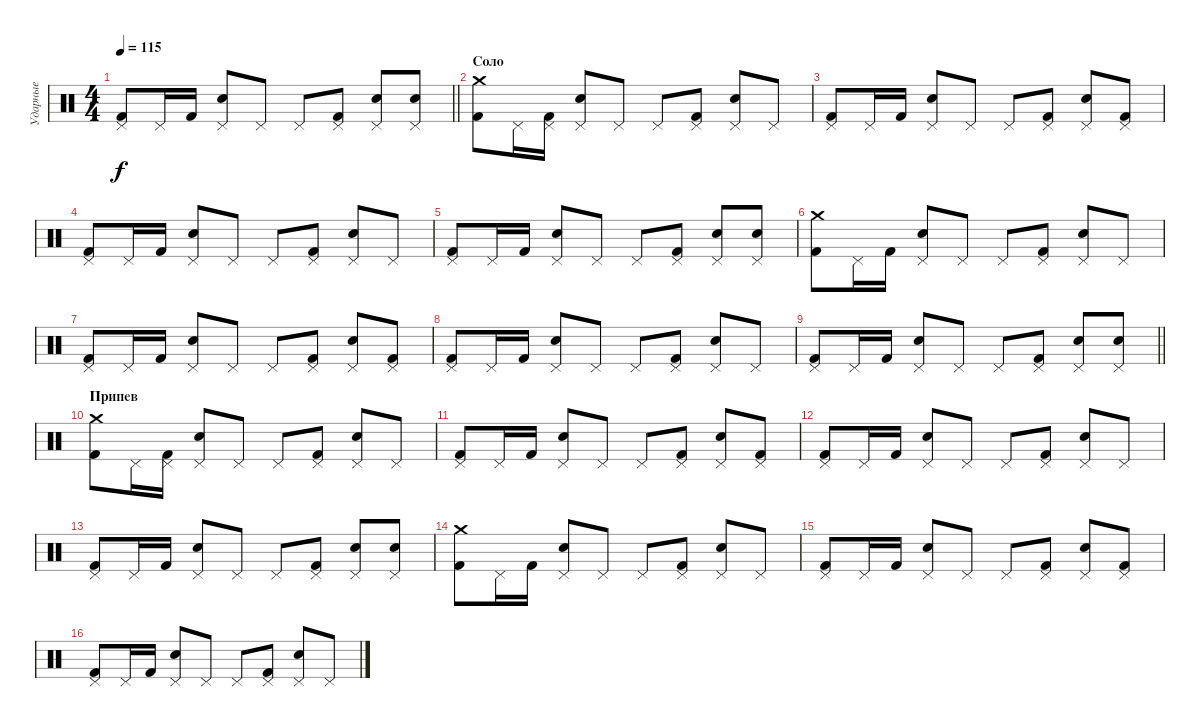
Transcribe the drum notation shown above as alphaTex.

\track ("Ударные" "Ударные") {instrument percussion}
\staff {score}
\articulation defaults
\ts (4 4)
\tempo 115
\clef neutral
\barLineRight lightlight
\ks c
("Pedal Hi-Hat (hit)" "Kick (hit) 2").8{dy f} "Pedal Hi-Hat (hit)".16 "Kick (hit) 2".16 ("Pedal Hi-Hat (hit)" "Electric Snare (hit)").8 "Pedal Hi-Hat (hit)".8 "Pedal Hi-Hat (hit)".8 ("Pedal Hi-Hat (hit)" "Kick (hit) 2").8 ("Pedal Hi-Hat (hit)" "Electric Snare (hit)").8 ("Pedal Hi-Hat (hit)" "Electric Snare (hit)").8 |
\section ("" "Соло")
("Crash medium (hit)" "Kick (hit) 2").8 "Pedal Hi-Hat (hit)".16 ("Pedal Hi-Hat (hit)" "Kick (hit) 2").16 ("Pedal Hi-Hat (hit)" "Electric Snare (hit)").8 "Pedal Hi-Hat (hit)".8 "Pedal Hi-Hat (hit)".8 ("Pedal Hi-Hat (hit)" "Kick (hit) 2").8 ("Pedal Hi-Hat (hit)" "Electric Snare (hit)").8 "Pedal Hi-Hat (hit)".8 |
("Pedal Hi-Hat (hit)" "Kick (hit) 2").8 "Pedal Hi-Hat (hit)".16 "Kick (hit) 2".16 ("Pedal Hi-Hat (hit)" "Electric Snare (hit)").8 "Pedal Hi-Hat (hit)".8 "Pedal Hi-Hat (hit)".8 ("Pedal Hi-Hat (hit)" "Kick (hit) 2").8 ("Pedal Hi-Hat (hit)" "Electric Snare (hit)").8 ("Pedal Hi-Hat (hit)" "Kick (hit) 2").8 |
("Pedal Hi-Hat (hit)" "Kick (hit) 2").8 "Pedal Hi-Hat (hit)".16 "Kick (hit) 2".16 ("Pedal Hi-Hat (hit)" "Electric Snare (hit)").8 "Pedal Hi-Hat (hit)".8 "Pedal Hi-Hat (hit)".8 ("Pedal Hi-Hat (hit)" "Kick (hit) 2").8 ("Pedal Hi-Hat (hit)" "Electric Snare (hit)").8 "Pedal Hi-Hat (hit)".8 |
("Pedal Hi-Hat (hit)" "Kick (hit) 2").8 "Pedal Hi-Hat (hit)".16 "Kick (hit) 2".16 ("Pedal Hi-Hat (hit)" "Electric Snare (hit)").8 "Pedal Hi-Hat (hit)".8 "Pedal Hi-Hat (hit)".8 ("Pedal Hi-Hat (hit)" "Kick (hit) 2").8 ("Pedal Hi-Hat (hit)" "Electric Snare (hit)").8 ("Pedal Hi-Hat (hit)" "Electric Snare (hit)").8 |
("Crash medium (hit)" "Kick (hit) 2").8 "Pedal Hi-Hat (hit)".16 "Kick (hit) 2".16 ("Pedal Hi-Hat (hit)" "Electric Snare (hit)").8 "Pedal Hi-Hat (hit)".8 "Pedal Hi-Hat (hit)".8 ("Pedal Hi-Hat (hit)" "Kick (hit) 2").8 ("Pedal Hi-Hat (hit)" "Electric Snare (hit)").8 "Pedal Hi-Hat (hit)".8 |
("Pedal Hi-Hat (hit)" "Kick (hit) 2").8 "Pedal Hi-Hat (hit)".16 "Kick (hit) 2".16 ("Pedal Hi-Hat (hit)" "Electric Snare (hit)").8 "Pedal Hi-Hat (hit)".8 "Pedal Hi-Hat (hit)".8 ("Pedal Hi-Hat (hit)" "Kick (hit) 2").8 ("Pedal Hi-Hat (hit)" "Electric Snare (hit)").8 ("Pedal Hi-Hat (hit)" "Kick (hit) 2").8 |
("Pedal Hi-Hat (hit)" "Kick (hit) 2").8 "Pedal Hi-Hat (hit)".16 "Kick (hit) 2".16 ("Pedal Hi-Hat (hit)" "Electric Snare (hit)").8 "Pedal Hi-Hat (hit)".8 "Pedal Hi-Hat (hit)".8 ("Pedal Hi-Hat (hit)" "Kick (hit) 2").8 ("Pedal Hi-Hat (hit)" "Electric Snare (hit)").8 "Pedal Hi-Hat (hit)".8 |
\barLineRight lightlight
("Pedal Hi-Hat (hit)" "Kick (hit) 2").8 "Pedal Hi-Hat (hit)".16 "Kick (hit) 2".16 ("Pedal Hi-Hat (hit)" "Electric Snare (hit)").8 "Pedal Hi-Hat (hit)".8 "Pedal Hi-Hat (hit)".8 ("Pedal Hi-Hat (hit)" "Kick (hit) 2").8 ("Pedal Hi-Hat (hit)" "Electric Snare (hit)").8 ("Pedal Hi-Hat (hit)" "Electric Snare (hit)").8 |
\section ("" "Припев")
("Crash medium (hit)" "Kick (hit) 2").8 "Pedal Hi-Hat (hit)".16 ("Pedal Hi-Hat (hit)" "Kick (hit) 2").16 ("Pedal Hi-Hat (hit)" "Electric Snare (hit)").8 "Pedal Hi-Hat (hit)".8 "Pedal Hi-Hat (hit)".8 ("Pedal Hi-Hat (hit)" "Kick (hit) 2").8 ("Pedal Hi-Hat (hit)" "Electric Snare (hit)").8 "Pedal Hi-Hat (hit)".8 |
("Pedal Hi-Hat (hit)" "Kick (hit) 2").8 "Pedal Hi-Hat (hit)".16 "Kick (hit) 2".16 ("Pedal Hi-Hat (hit)" "Electric Snare (hit)").8 "Pedal Hi-Hat (hit)".8 "Pedal Hi-Hat (hit)".8 ("Pedal Hi-Hat (hit)" "Kick (hit) 2").8 ("Pedal Hi-Hat (hit)" "Electric Snare (hit)").8 ("Pedal Hi-Hat (hit)" "Kick (hit) 2").8 |
("Pedal Hi-Hat (hit)" "Kick (hit) 2").8 "Pedal Hi-Hat (hit)".16 "Kick (hit) 2".16 ("Pedal Hi-Hat (hit)" "Electric Snare (hit)").8 "Pedal Hi-Hat (hit)".8 "Pedal Hi-Hat (hit)".8 ("Pedal Hi-Hat (hit)" "Kick (hit) 2").8 ("Pedal Hi-Hat (hit)" "Electric Snare (hit)").8 "Pedal Hi-Hat (hit)".8 |
("Pedal Hi-Hat (hit)" "Kick (hit) 2").8 "Pedal Hi-Hat (hit)".16 "Kick (hit) 2".16 ("Pedal Hi-Hat (hit)" "Electric Snare (hit)").8 "Pedal Hi-Hat (hit)".8 "Pedal Hi-Hat (hit)".8 ("Pedal Hi-Hat (hit)" "Kick (hit) 2").8 ("Pedal Hi-Hat (hit)" "Electric Snare (hit)").8 ("Pedal Hi-Hat (hit)" "Electric Snare (hit)").8 |
("Crash medium (hit)" "Kick (hit) 2").8 "Pedal Hi-Hat (hit)".16 "Kick (hit) 2".16 ("Pedal Hi-Hat (hit)" "Electric Snare (hit)").8 "Pedal Hi-Hat (hit)".8 "Pedal Hi-Hat (hit)".8 ("Pedal Hi-Hat (hit)" "Kick (hit) 2").8 ("Pedal Hi-Hat (hit)" "Electric Snare (hit)").8 "Pedal Hi-Hat (hit)".8 |
("Pedal Hi-Hat (hit)" "Kick (hit) 2").8 "Pedal Hi-Hat (hit)".16 "Kick (hit) 2".16 ("Pedal Hi-Hat (hit)" "Electric Snare (hit)").8 "Pedal Hi-Hat (hit)".8 "Pedal Hi-Hat (hit)".8 ("Pedal Hi-Hat (hit)" "Kick (hit) 2").8 ("Pedal Hi-Hat (hit)" "Electric Snare (hit)").8 ("Pedal Hi-Hat (hit)" "Kick (hit) 2").8 |
("Pedal Hi-Hat (hit)" "Kick (hit) 2").8 "Pedal Hi-Hat (hit)".16 "Kick (hit) 2".16 ("Pedal Hi-Hat (hit)" "Electric Snare (hit)").8 "Pedal Hi-Hat (hit)".8 "Pedal Hi-Hat (hit)".8 ("Pedal Hi-Hat (hit)" "Kick (hit) 2").8 ("Pedal Hi-Hat (hit)" "Electric Snare (hit)").8 "Pedal Hi-Hat (hit)".8
